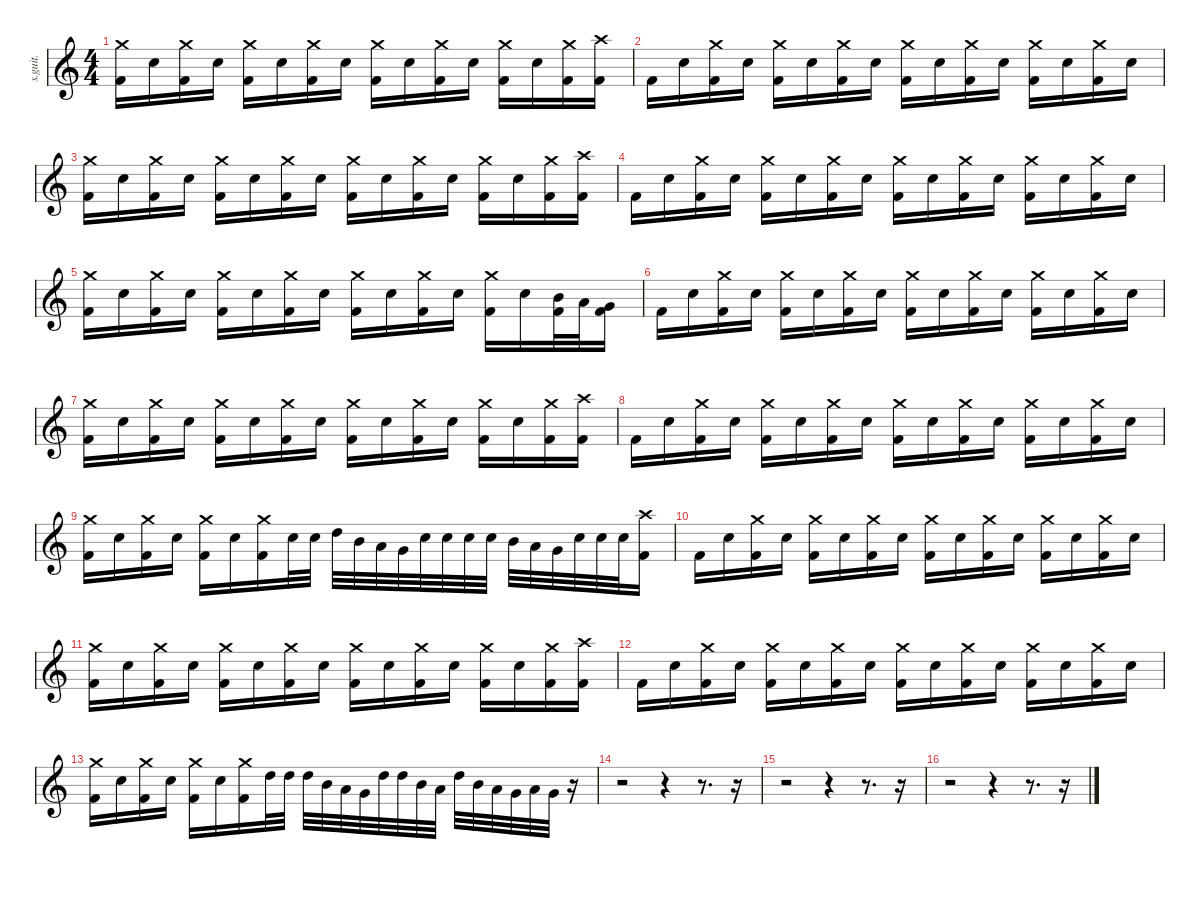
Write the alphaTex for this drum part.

\defaultSystemsLayout 4
\hideDynamics
\bracketExtendMode nobrackets
\track ("Tomas Haake" "s.guit.") {instrument percussion}
\staff {score}
\articulation defaults
\ts (4 4)
\tempo (110 hide)
\clef g2
\ks c
("Crash medium (hit)" "Kick (hit) 2").16{lyrics (0 "") lyrics (1 "") lyrics (2 "") lyrics (3 "") lyrics (4 "") dy f} "Snare (hit) 2".16{lyrics (0 "") lyrics (1 "") lyrics (2 "") lyrics (3 "") lyrics (4 "")} ("Crash medium (hit)" "Kick (hit) 2").16{lyrics (0 "") lyrics (1 "") lyrics (2 "") lyrics (3 "") lyrics (4 "")} "Snare (hit) 2".16{lyrics (0 "") lyrics (1 "") lyrics (2 "") lyrics (3 "") lyrics (4 "")} ("Crash medium (hit)" "Kick (hit) 2").16{lyrics (0 "") lyrics (1 "") lyrics (2 "") lyrics (3 "") lyrics (4 "")} "Snare (hit) 2".16{lyrics (0 "") lyrics (1 "") lyrics (2 "") lyrics (3 "") lyrics (4 "")} ("Crash medium (hit)" "Kick (hit) 2").16{lyrics (0 "") lyrics (1 "") lyrics (2 "") lyrics (3 "") lyrics (4 "")} "Snare (hit) 2".16{lyrics (0 "") lyrics (1 "") lyrics (2 "") lyrics (3 "") lyrics (4 "")} ("Crash medium (hit)" "Kick (hit) 2").16{lyrics (0 "") lyrics (1 "") lyrics (2 "") lyrics (3 "") lyrics (4 "")} "Snare (hit) 2".16{lyrics (0 "") lyrics (1 "") lyrics (2 "") lyrics (3 "") lyrics (4 "")} ("Crash medium (hit)" "Kick (hit) 2").16{lyrics (0 "") lyrics (1 "") lyrics (2 "") lyrics (3 "") lyrics (4 "")} "Snare (hit) 2".16{lyrics (0 "") lyrics (1 "") lyrics (2 "") lyrics (3 "") lyrics (4 "")} ("Crash medium (hit)" "Kick (hit) 2").16{lyrics (0 "") lyrics (1 "") lyrics (2 "") lyrics (3 "") lyrics (4 "")} "Snare (hit) 2".16{lyrics (0 "") lyrics (1 "") lyrics (2 "") lyrics (3 "") lyrics (4 "")} ("Crash medium (hit)" "Kick (hit) 2").16{lyrics (0 "") lyrics (1 "") lyrics (2 "") lyrics (3 "") lyrics (4 "")} ("Crash high (hit)" "Kick (hit) 2").16{lyrics (0 "") lyrics (1 "") lyrics (2 "") lyrics (3 "") lyrics (4 "")} |
"Kick (hit) 2".16{lyrics (0 "") lyrics (1 "") lyrics (2 "") lyrics (3 "") lyrics (4 "")} "Snare (hit) 2".16{lyrics (0 "") lyrics (1 "") lyrics (2 "") lyrics (3 "") lyrics (4 "")} ("Crash medium (hit)" "Kick (hit) 2").16{lyrics (0 "") lyrics (1 "") lyrics (2 "") lyrics (3 "") lyrics (4 "")} "Snare (hit) 2".16{lyrics (0 "") lyrics (1 "") lyrics (2 "") lyrics (3 "") lyrics (4 "")} ("Crash medium (hit)" "Kick (hit) 2").16{lyrics (0 "") lyrics (1 "") lyrics (2 "") lyrics (3 "") lyrics (4 "")} "Snare (hit) 2".16{lyrics (0 "") lyrics (1 "") lyrics (2 "") lyrics (3 "") lyrics (4 "")} ("Crash medium (hit)" "Kick (hit) 2").16{lyrics (0 "") lyrics (1 "") lyrics (2 "") lyrics (3 "") lyrics (4 "")} "Snare (hit) 2".16{lyrics (0 "") lyrics (1 "") lyrics (2 "") lyrics (3 "") lyrics (4 "")} ("Crash medium (hit)" "Kick (hit) 2").16{lyrics (0 "") lyrics (1 "") lyrics (2 "") lyrics (3 "") lyrics (4 "")} "Snare (hit) 2".16{lyrics (0 "") lyrics (1 "") lyrics (2 "") lyrics (3 "") lyrics (4 "")} ("Crash medium (hit)" "Kick (hit) 2").16{lyrics (0 "") lyrics (1 "") lyrics (2 "") lyrics (3 "") lyrics (4 "")} "Snare (hit) 2".16{lyrics (0 "") lyrics (1 "") lyrics (2 "") lyrics (3 "") lyrics (4 "")} ("Crash medium (hit)" "Kick (hit) 2").16{lyrics (0 "") lyrics (1 "") lyrics (2 "") lyrics (3 "") lyrics (4 "")} "Snare (hit) 2".16{lyrics (0 "") lyrics (1 "") lyrics (2 "") lyrics (3 "") lyrics (4 "")} ("Crash medium (hit)" "Kick (hit) 2").16{lyrics (0 "") lyrics (1 "") lyrics (2 "") lyrics (3 "") lyrics (4 "")} "Snare (hit) 2".16{lyrics (0 "") lyrics (1 "") lyrics (2 "") lyrics (3 "") lyrics (4 "")} |
("Crash medium (hit)" "Kick (hit) 2").16{lyrics (0 "") lyrics (1 "") lyrics (2 "") lyrics (3 "") lyrics (4 "")} "Snare (hit) 2".16{lyrics (0 "") lyrics (1 "") lyrics (2 "") lyrics (3 "") lyrics (4 "")} ("Crash medium (hit)" "Kick (hit) 2").16{lyrics (0 "") lyrics (1 "") lyrics (2 "") lyrics (3 "") lyrics (4 "")} "Snare (hit) 2".16{lyrics (0 "") lyrics (1 "") lyrics (2 "") lyrics (3 "") lyrics (4 "")} ("Crash medium (hit)" "Kick (hit) 2").16{lyrics (0 "") lyrics (1 "") lyrics (2 "") lyrics (3 "") lyrics (4 "")} "Snare (hit) 2".16{lyrics (0 "") lyrics (1 "") lyrics (2 "") lyrics (3 "") lyrics (4 "")} ("Crash medium (hit)" "Kick (hit) 2").16{lyrics (0 "") lyrics (1 "") lyrics (2 "") lyrics (3 "") lyrics (4 "")} "Snare (hit) 2".16{lyrics (0 "") lyrics (1 "") lyrics (2 "") lyrics (3 "") lyrics (4 "")} ("Crash medium (hit)" "Kick (hit) 2").16{lyrics (0 "") lyrics (1 "") lyrics (2 "") lyrics (3 "") lyrics (4 "")} "Snare (hit) 2".16{lyrics (0 "") lyrics (1 "") lyrics (2 "") lyrics (3 "") lyrics (4 "")} ("Crash medium (hit)" "Kick (hit) 2").16{lyrics (0 "") lyrics (1 "") lyrics (2 "") lyrics (3 "") lyrics (4 "")} "Snare (hit) 2".16{lyrics (0 "") lyrics (1 "") lyrics (2 "") lyrics (3 "") lyrics (4 "")} ("Crash medium (hit)" "Kick (hit) 2").16{lyrics (0 "") lyrics (1 "") lyrics (2 "") lyrics (3 "") lyrics (4 "")} "Snare (hit) 2".16{lyrics (0 "") lyrics (1 "") lyrics (2 "") lyrics (3 "") lyrics (4 "")} ("Crash medium (hit)" "Kick (hit) 2").16{lyrics (0 "") lyrics (1 "") lyrics (2 "") lyrics (3 "") lyrics (4 "")} ("Crash high (hit)" "Kick (hit) 2").16{lyrics (0 "") lyrics (1 "") lyrics (2 "") lyrics (3 "") lyrics (4 "")} |
"Kick (hit) 2".16{lyrics (0 "") lyrics (1 "") lyrics (2 "") lyrics (3 "") lyrics (4 "")} "Snare (hit) 2".16{lyrics (0 "") lyrics (1 "") lyrics (2 "") lyrics (3 "") lyrics (4 "")} ("Crash medium (hit)" "Kick (hit) 2").16{lyrics (0 "") lyrics (1 "") lyrics (2 "") lyrics (3 "") lyrics (4 "")} "Snare (hit) 2".16{lyrics (0 "") lyrics (1 "") lyrics (2 "") lyrics (3 "") lyrics (4 "")} ("Crash medium (hit)" "Kick (hit) 2").16{lyrics (0 "") lyrics (1 "") lyrics (2 "") lyrics (3 "") lyrics (4 "")} "Snare (hit) 2".16{lyrics (0 "") lyrics (1 "") lyrics (2 "") lyrics (3 "") lyrics (4 "")} ("Crash medium (hit)" "Kick (hit) 2").16{lyrics (0 "") lyrics (1 "") lyrics (2 "") lyrics (3 "") lyrics (4 "")} "Snare (hit) 2".16{lyrics (0 "") lyrics (1 "") lyrics (2 "") lyrics (3 "") lyrics (4 "")} ("Crash medium (hit)" "Kick (hit) 2").16{lyrics (0 "") lyrics (1 "") lyrics (2 "") lyrics (3 "") lyrics (4 "")} "Snare (hit) 2".16{lyrics (0 "") lyrics (1 "") lyrics (2 "") lyrics (3 "") lyrics (4 "")} ("Crash medium (hit)" "Kick (hit) 2").16{lyrics (0 "") lyrics (1 "") lyrics (2 "") lyrics (3 "") lyrics (4 "")} "Snare (hit) 2".16{lyrics (0 "") lyrics (1 "") lyrics (2 "") lyrics (3 "") lyrics (4 "")} ("Crash medium (hit)" "Kick (hit) 2").16{lyrics (0 "") lyrics (1 "") lyrics (2 "") lyrics (3 "") lyrics (4 "")} "Snare (hit) 2".16{lyrics (0 "") lyrics (1 "") lyrics (2 "") lyrics (3 "") lyrics (4 "")} ("Crash medium (hit)" "Kick (hit) 2").16{lyrics (0 "") lyrics (1 "") lyrics (2 "") lyrics (3 "") lyrics (4 "")} "Snare (hit) 2".16{lyrics (0 "") lyrics (1 "") lyrics (2 "") lyrics (3 "") lyrics (4 "")} |
("Crash medium (hit)" "Kick (hit) 2").16{lyrics (0 "") lyrics (1 "") lyrics (2 "") lyrics (3 "") lyrics (4 "")} "Snare (hit) 2".16{lyrics (0 "") lyrics (1 "") lyrics (2 "") lyrics (3 "") lyrics (4 "")} ("Crash medium (hit)" "Kick (hit) 2").16{lyrics (0 "") lyrics (1 "") lyrics (2 "") lyrics (3 "") lyrics (4 "")} "Snare (hit) 2".16{lyrics (0 "") lyrics (1 "") lyrics (2 "") lyrics (3 "") lyrics (4 "")} ("Crash medium (hit)" "Kick (hit) 2").16{lyrics (0 "") lyrics (1 "") lyrics (2 "") lyrics (3 "") lyrics (4 "")} "Snare (hit) 2".16{lyrics (0 "") lyrics (1 "") lyrics (2 "") lyrics (3 "") lyrics (4 "")} ("Crash medium (hit)" "Kick (hit) 2").16{lyrics (0 "") lyrics (1 "") lyrics (2 "") lyrics (3 "") lyrics (4 "")} "Snare (hit) 2".16{lyrics (0 "") lyrics (1 "") lyrics (2 "") lyrics (3 "") lyrics (4 "")} ("Crash medium (hit)" "Kick (hit) 2").16{lyrics (0 "") lyrics (1 "") lyrics (2 "") lyrics (3 "") lyrics (4 "")} "Snare (hit) 2".16{lyrics (0 "") lyrics (1 "") lyrics (2 "") lyrics (3 "") lyrics (4 "")} ("Crash medium (hit)" "Kick (hit) 2").16{lyrics (0 "") lyrics (1 "") lyrics (2 "") lyrics (3 "") lyrics (4 "")} "Snare (hit) 2".16{lyrics (0 "") lyrics (1 "") lyrics (2 "") lyrics (3 "") lyrics (4 "")} ("Crash medium (hit)" "Kick (hit) 2").16{lyrics (0 "") lyrics (1 "") lyrics (2 "") lyrics (3 "") lyrics (4 "")} "Snare (hit) 2".16{lyrics (0 "") lyrics (1 "") lyrics (2 "") lyrics (3 "") lyrics (4 "")} ("Mid Tom (hit)" "Kick (hit) 2").32{lyrics (0 "") lyrics (1 "") lyrics (2 "") lyrics (3 "") lyrics (4 "")} "Low Tom (hit)".32{lyrics (0 "") lyrics (1 "") lyrics (2 "") lyrics (3 "") lyrics (4 "")} ("Very Low Tom (hit)" "Kick (hit) 2").16{lyrics (0 "") lyrics (1 "") lyrics (2 "") lyrics (3 "") lyrics (4 "")} |
"Kick (hit) 2".16{lyrics (0 "") lyrics (1 "") lyrics (2 "") lyrics (3 "") lyrics (4 "")} "Snare (hit) 2".16{lyrics (0 "") lyrics (1 "") lyrics (2 "") lyrics (3 "") lyrics (4 "")} ("Crash medium (hit)" "Kick (hit) 2").16{lyrics (0 "") lyrics (1 "") lyrics (2 "") lyrics (3 "") lyrics (4 "")} "Snare (hit) 2".16{lyrics (0 "") lyrics (1 "") lyrics (2 "") lyrics (3 "") lyrics (4 "")} ("Crash medium (hit)" "Kick (hit) 2").16{lyrics (0 "") lyrics (1 "") lyrics (2 "") lyrics (3 "") lyrics (4 "")} "Snare (hit) 2".16{lyrics (0 "") lyrics (1 "") lyrics (2 "") lyrics (3 "") lyrics (4 "")} ("Crash medium (hit)" "Kick (hit) 2").16{lyrics (0 "") lyrics (1 "") lyrics (2 "") lyrics (3 "") lyrics (4 "")} "Snare (hit) 2".16{lyrics (0 "") lyrics (1 "") lyrics (2 "") lyrics (3 "") lyrics (4 "")} ("Crash medium (hit)" "Kick (hit) 2").16{lyrics (0 "") lyrics (1 "") lyrics (2 "") lyrics (3 "") lyrics (4 "")} "Snare (hit) 2".16{lyrics (0 "") lyrics (1 "") lyrics (2 "") lyrics (3 "") lyrics (4 "")} ("Crash medium (hit)" "Kick (hit) 2").16{lyrics (0 "") lyrics (1 "") lyrics (2 "") lyrics (3 "") lyrics (4 "")} "Snare (hit) 2".16{lyrics (0 "") lyrics (1 "") lyrics (2 "") lyrics (3 "") lyrics (4 "")} ("Crash medium (hit)" "Kick (hit) 2").16{lyrics (0 "") lyrics (1 "") lyrics (2 "") lyrics (3 "") lyrics (4 "")} "Snare (hit) 2".16{lyrics (0 "") lyrics (1 "") lyrics (2 "") lyrics (3 "") lyrics (4 "")} ("Crash medium (hit)" "Kick (hit) 2").16{lyrics (0 "") lyrics (1 "") lyrics (2 "") lyrics (3 "") lyrics (4 "")} "Snare (hit) 2".16{lyrics (0 "") lyrics (1 "") lyrics (2 "") lyrics (3 "") lyrics (4 "")} |
("Crash medium (hit)" "Kick (hit) 2").16{lyrics (0 "") lyrics (1 "") lyrics (2 "") lyrics (3 "") lyrics (4 "")} "Snare (hit) 2".16{lyrics (0 "") lyrics (1 "") lyrics (2 "") lyrics (3 "") lyrics (4 "")} ("Crash medium (hit)" "Kick (hit) 2").16{lyrics (0 "") lyrics (1 "") lyrics (2 "") lyrics (3 "") lyrics (4 "")} "Snare (hit) 2".16{lyrics (0 "") lyrics (1 "") lyrics (2 "") lyrics (3 "") lyrics (4 "")} ("Crash medium (hit)" "Kick (hit) 2").16{lyrics (0 "") lyrics (1 "") lyrics (2 "") lyrics (3 "") lyrics (4 "")} "Snare (hit) 2".16{lyrics (0 "") lyrics (1 "") lyrics (2 "") lyrics (3 "") lyrics (4 "")} ("Crash medium (hit)" "Kick (hit) 2").16{lyrics (0 "") lyrics (1 "") lyrics (2 "") lyrics (3 "") lyrics (4 "")} "Snare (hit) 2".16{lyrics (0 "") lyrics (1 "") lyrics (2 "") lyrics (3 "") lyrics (4 "")} ("Crash medium (hit)" "Kick (hit) 2").16{lyrics (0 "") lyrics (1 "") lyrics (2 "") lyrics (3 "") lyrics (4 "")} "Snare (hit) 2".16{lyrics (0 "") lyrics (1 "") lyrics (2 "") lyrics (3 "") lyrics (4 "")} ("Crash medium (hit)" "Kick (hit) 2").16{lyrics (0 "") lyrics (1 "") lyrics (2 "") lyrics (3 "") lyrics (4 "")} "Snare (hit) 2".16{lyrics (0 "") lyrics (1 "") lyrics (2 "") lyrics (3 "") lyrics (4 "")} ("Crash medium (hit)" "Kick (hit) 2").16{lyrics (0 "") lyrics (1 "") lyrics (2 "") lyrics (3 "") lyrics (4 "")} "Snare (hit) 2".16{lyrics (0 "") lyrics (1 "") lyrics (2 "") lyrics (3 "") lyrics (4 "")} ("Crash medium (hit)" "Kick (hit) 2").16{lyrics (0 "") lyrics (1 "") lyrics (2 "") lyrics (3 "") lyrics (4 "")} ("Crash high (hit)" "Kick (hit) 2").16{lyrics (0 "") lyrics (1 "") lyrics (2 "") lyrics (3 "") lyrics (4 "")} |
"Kick (hit) 2".16{lyrics (0 "") lyrics (1 "") lyrics (2 "") lyrics (3 "") lyrics (4 "")} "Snare (hit) 2".16{lyrics (0 "") lyrics (1 "") lyrics (2 "") lyrics (3 "") lyrics (4 "")} ("Crash medium (hit)" "Kick (hit) 2").16{lyrics (0 "") lyrics (1 "") lyrics (2 "") lyrics (3 "") lyrics (4 "")} "Snare (hit) 2".16{lyrics (0 "") lyrics (1 "") lyrics (2 "") lyrics (3 "") lyrics (4 "")} ("Crash medium (hit)" "Kick (hit) 2").16{lyrics (0 "") lyrics (1 "") lyrics (2 "") lyrics (3 "") lyrics (4 "")} "Snare (hit) 2".16{lyrics (0 "") lyrics (1 "") lyrics (2 "") lyrics (3 "") lyrics (4 "")} ("Crash medium (hit)" "Kick (hit) 2").16{lyrics (0 "") lyrics (1 "") lyrics (2 "") lyrics (3 "") lyrics (4 "")} "Snare (hit) 2".16{lyrics (0 "") lyrics (1 "") lyrics (2 "") lyrics (3 "") lyrics (4 "")} ("Crash medium (hit)" "Kick (hit) 2").16{lyrics (0 "") lyrics (1 "") lyrics (2 "") lyrics (3 "") lyrics (4 "")} "Snare (hit) 2".16{lyrics (0 "") lyrics (1 "") lyrics (2 "") lyrics (3 "") lyrics (4 "")} ("Crash medium (hit)" "Kick (hit) 2").16{lyrics (0 "") lyrics (1 "") lyrics (2 "") lyrics (3 "") lyrics (4 "")} "Snare (hit) 2".16{lyrics (0 "") lyrics (1 "") lyrics (2 "") lyrics (3 "") lyrics (4 "")} ("Crash medium (hit)" "Kick (hit) 2").16{lyrics (0 "") lyrics (1 "") lyrics (2 "") lyrics (3 "") lyrics (4 "")} "Snare (hit) 2".16{lyrics (0 "") lyrics (1 "") lyrics (2 "") lyrics (3 "") lyrics (4 "")} ("Crash medium (hit)" "Kick (hit) 2").16{lyrics (0 "") lyrics (1 "") lyrics (2 "") lyrics (3 "") lyrics (4 "")} "Snare (hit) 2".16{lyrics (0 "") lyrics (1 "") lyrics (2 "") lyrics (3 "") lyrics (4 "")} |
("Crash medium (hit)" "Kick (hit) 2").16{lyrics (0 "") lyrics (1 "") lyrics (2 "") lyrics (3 "") lyrics (4 "")} "Snare (hit) 2".16{lyrics (0 "") lyrics (1 "") lyrics (2 "") lyrics (3 "") lyrics (4 "")} ("Crash medium (hit)" "Kick (hit) 2").16{lyrics (0 "") lyrics (1 "") lyrics (2 "") lyrics (3 "") lyrics (4 "")} "Snare (hit) 2".16{lyrics (0 "") lyrics (1 "") lyrics (2 "") lyrics (3 "") lyrics (4 "")} ("Crash medium (hit)" "Kick (hit) 2").16{lyrics (0 "") lyrics (1 "") lyrics (2 "") lyrics (3 "") lyrics (4 "")} "Snare (hit) 2".16{lyrics (0 "") lyrics (1 "") lyrics (2 "") lyrics (3 "") lyrics (4 "")} ("Crash medium (hit)" "Kick (hit) 2").16{lyrics (0 "") lyrics (1 "") lyrics (2 "") lyrics (3 "") lyrics (4 "")} "Snare (hit) 2".32{lyrics (0 "") lyrics (1 "") lyrics (2 "") lyrics (3 "") lyrics (4 "")} "Snare (hit) 2".32{lyrics (0 "") lyrics (1 "") lyrics (2 "") lyrics (3 "") lyrics (4 "")} "High Tom (hit)".32{lyrics (0 "") lyrics (1 "") lyrics (2 "") lyrics (3 "") lyrics (4 "")} "Mid Tom (hit)".32{lyrics (0 "") lyrics (1 "") lyrics (2 "") lyrics (3 "") lyrics (4 "")} "Low Tom (hit)".32{lyrics (0 "") lyrics (1 "") lyrics (2 "") lyrics (3 "") lyrics (4 "")} "Very Low Tom (hit)".32{lyrics (0 "") lyrics (1 "") lyrics (2 "") lyrics (3 "") lyrics (4 "")} "Snare (hit) 2".32{lyrics (0 "") lyrics (1 "") lyrics (2 "") lyrics (3 "") lyrics (4 "")} "Snare (hit) 2".32{lyrics (0 "") lyrics (1 "") lyrics (2 "") lyrics (3 "") lyrics (4 "")} "Snare (hit) 2".32{lyrics (0 "") lyrics (1 "") lyrics (2 "") lyrics (3 "") lyrics (4 "")} "Snare (hit) 2".32{lyrics (0 "") lyrics (1 "") lyrics (2 "") lyrics (3 "") lyrics (4 "")} "Mid Tom (hit)".32{lyrics (0 "") lyrics (1 "") lyrics (2 "") lyrics (3 "") lyrics (4 "")} "Low Tom (hit)".32{lyrics (0 "") lyrics (1 "") lyrics (2 "") lyrics (3 "") lyrics (4 "")} "Very Low Tom (hit)".32{lyrics (0 "") lyrics (1 "") lyrics (2 "") lyrics (3 "") lyrics (4 "")} "Snare (hit) 2".32{lyrics (0 "") lyrics (1 "") lyrics (2 "") lyrics (3 "") lyrics (4 "")} "Snare (hit) 2".32{lyrics (0 "") lyrics (1 "") lyrics (2 "") lyrics (3 "") lyrics (4 "")} "Snare (hit) 2".32{lyrics (0 "") lyrics (1 "") lyrics (2 "") lyrics (3 "") lyrics (4 "")} ("Crash high (hit)" "Kick (hit) 2").16{lyrics (0 "") lyrics (1 "") lyrics (2 "") lyrics (3 "") lyrics (4 "")} |
"Kick (hit) 2".16{lyrics (0 "") lyrics (1 "") lyrics (2 "") lyrics (3 "") lyrics (4 "")} "Snare (hit) 2".16{lyrics (0 "") lyrics (1 "") lyrics (2 "") lyrics (3 "") lyrics (4 "")} ("Crash medium (hit)" "Kick (hit) 2").16{lyrics (0 "") lyrics (1 "") lyrics (2 "") lyrics (3 "") lyrics (4 "")} "Snare (hit) 2".16{lyrics (0 "") lyrics (1 "") lyrics (2 "") lyrics (3 "") lyrics (4 "")} ("Crash medium (hit)" "Kick (hit) 2").16{lyrics (0 "") lyrics (1 "") lyrics (2 "") lyrics (3 "") lyrics (4 "")} "Snare (hit) 2".16{lyrics (0 "") lyrics (1 "") lyrics (2 "") lyrics (3 "") lyrics (4 "")} ("Crash medium (hit)" "Kick (hit) 2").16{lyrics (0 "") lyrics (1 "") lyrics (2 "") lyrics (3 "") lyrics (4 "")} "Snare (hit) 2".16{lyrics (0 "") lyrics (1 "") lyrics (2 "") lyrics (3 "") lyrics (4 "")} ("Crash medium (hit)" "Kick (hit) 2").16{lyrics (0 "") lyrics (1 "") lyrics (2 "") lyrics (3 "") lyrics (4 "")} "Snare (hit) 2".16{lyrics (0 "") lyrics (1 "") lyrics (2 "") lyrics (3 "") lyrics (4 "")} ("Crash medium (hit)" "Kick (hit) 2").16{lyrics (0 "") lyrics (1 "") lyrics (2 "") lyrics (3 "") lyrics (4 "")} "Snare (hit) 2".16{lyrics (0 "") lyrics (1 "") lyrics (2 "") lyrics (3 "") lyrics (4 "")} ("Crash medium (hit)" "Kick (hit) 2").16{lyrics (0 "") lyrics (1 "") lyrics (2 "") lyrics (3 "") lyrics (4 "")} "Snare (hit) 2".16{lyrics (0 "") lyrics (1 "") lyrics (2 "") lyrics (3 "") lyrics (4 "")} ("Crash medium (hit)" "Kick (hit) 2").16{lyrics (0 "") lyrics (1 "") lyrics (2 "") lyrics (3 "") lyrics (4 "")} "Snare (hit) 2".16{lyrics (0 "") lyrics (1 "") lyrics (2 "") lyrics (3 "") lyrics (4 "")} |
("Crash medium (hit)" "Kick (hit) 2").16{lyrics (0 "") lyrics (1 "") lyrics (2 "") lyrics (3 "") lyrics (4 "")} "Snare (hit) 2".16{lyrics (0 "") lyrics (1 "") lyrics (2 "") lyrics (3 "") lyrics (4 "")} ("Crash medium (hit)" "Kick (hit) 2").16{lyrics (0 "") lyrics (1 "") lyrics (2 "") lyrics (3 "") lyrics (4 "")} "Snare (hit) 2".16{lyrics (0 "") lyrics (1 "") lyrics (2 "") lyrics (3 "") lyrics (4 "")} ("Crash medium (hit)" "Kick (hit) 2").16{lyrics (0 "") lyrics (1 "") lyrics (2 "") lyrics (3 "") lyrics (4 "")} "Snare (hit) 2".16{lyrics (0 "") lyrics (1 "") lyrics (2 "") lyrics (3 "") lyrics (4 "")} ("Crash medium (hit)" "Kick (hit) 2").16{lyrics (0 "") lyrics (1 "") lyrics (2 "") lyrics (3 "") lyrics (4 "")} "Snare (hit) 2".16{lyrics (0 "") lyrics (1 "") lyrics (2 "") lyrics (3 "") lyrics (4 "")} ("Crash medium (hit)" "Kick (hit) 2").16{lyrics (0 "") lyrics (1 "") lyrics (2 "") lyrics (3 "") lyrics (4 "")} "Snare (hit) 2".16{lyrics (0 "") lyrics (1 "") lyrics (2 "") lyrics (3 "") lyrics (4 "")} ("Crash medium (hit)" "Kick (hit) 2").16{lyrics (0 "") lyrics (1 "") lyrics (2 "") lyrics (3 "") lyrics (4 "")} "Snare (hit) 2".16{lyrics (0 "") lyrics (1 "") lyrics (2 "") lyrics (3 "") lyrics (4 "")} ("Crash medium (hit)" "Kick (hit) 2").16{lyrics (0 "") lyrics (1 "") lyrics (2 "") lyrics (3 "") lyrics (4 "")} "Snare (hit) 2".16{lyrics (0 "") lyrics (1 "") lyrics (2 "") lyrics (3 "") lyrics (4 "")} ("Crash medium (hit)" "Kick (hit) 2").16{lyrics (0 "") lyrics (1 "") lyrics (2 "") lyrics (3 "") lyrics (4 "")} ("Crash high (hit)" "Kick (hit) 2").16{lyrics (0 "") lyrics (1 "") lyrics (2 "") lyrics (3 "") lyrics (4 "")} |
"Kick (hit) 2".16{lyrics (0 "") lyrics (1 "") lyrics (2 "") lyrics (3 "") lyrics (4 "")} "Snare (hit) 2".16{lyrics (0 "") lyrics (1 "") lyrics (2 "") lyrics (3 "") lyrics (4 "")} ("Crash medium (hit)" "Kick (hit) 2").16{lyrics (0 "") lyrics (1 "") lyrics (2 "") lyrics (3 "") lyrics (4 "")} "Snare (hit) 2".16{lyrics (0 "") lyrics (1 "") lyrics (2 "") lyrics (3 "") lyrics (4 "")} ("Crash medium (hit)" "Kick (hit) 2").16{lyrics (0 "") lyrics (1 "") lyrics (2 "") lyrics (3 "") lyrics (4 "")} "Snare (hit) 2".16{lyrics (0 "") lyrics (1 "") lyrics (2 "") lyrics (3 "") lyrics (4 "")} ("Crash medium (hit)" "Kick (hit) 2").16{lyrics (0 "") lyrics (1 "") lyrics (2 "") lyrics (3 "") lyrics (4 "")} "Snare (hit) 2".16{lyrics (0 "") lyrics (1 "") lyrics (2 "") lyrics (3 "") lyrics (4 "")} ("Crash medium (hit)" "Kick (hit) 2").16{lyrics (0 "") lyrics (1 "") lyrics (2 "") lyrics (3 "") lyrics (4 "")} "Snare (hit) 2".16{lyrics (0 "") lyrics (1 "") lyrics (2 "") lyrics (3 "") lyrics (4 "")} ("Crash medium (hit)" "Kick (hit) 2").16{lyrics (0 "") lyrics (1 "") lyrics (2 "") lyrics (3 "") lyrics (4 "")} "Snare (hit) 2".16{lyrics (0 "") lyrics (1 "") lyrics (2 "") lyrics (3 "") lyrics (4 "")} ("Crash medium (hit)" "Kick (hit) 2").16{lyrics (0 "") lyrics (1 "") lyrics (2 "") lyrics (3 "") lyrics (4 "")} "Snare (hit) 2".16{lyrics (0 "") lyrics (1 "") lyrics (2 "") lyrics (3 "") lyrics (4 "")} ("Crash medium (hit)" "Kick (hit) 2").16{lyrics (0 "") lyrics (1 "") lyrics (2 "") lyrics (3 "") lyrics (4 "")} "Snare (hit) 2".16{lyrics (0 "") lyrics (1 "") lyrics (2 "") lyrics (3 "") lyrics (4 "")} |
("Crash medium (hit)" "Kick (hit) 2").16{lyrics (0 "") lyrics (1 "") lyrics (2 "") lyrics (3 "") lyrics (4 "")} "Snare (hit) 2".16{lyrics (0 "") lyrics (1 "") lyrics (2 "") lyrics (3 "") lyrics (4 "")} ("Crash medium (hit)" "Kick (hit) 2").16{lyrics (0 "") lyrics (1 "") lyrics (2 "") lyrics (3 "") lyrics (4 "")} "Snare (hit) 2".16{lyrics (0 "") lyrics (1 "") lyrics (2 "") lyrics (3 "") lyrics (4 "")} ("Crash medium (hit)" "Kick (hit) 2").16{lyrics (0 "") lyrics (1 "") lyrics (2 "") lyrics (3 "") lyrics (4 "")} "Snare (hit) 2".16{lyrics (0 "") lyrics (1 "") lyrics (2 "") lyrics (3 "") lyrics (4 "")} ("Crash medium (hit)" "Kick (hit) 2").16{lyrics (0 "") lyrics (1 "") lyrics (2 "") lyrics (3 "") lyrics (4 "")} "High Tom (hit)".32{lyrics (0 "") lyrics (1 "") lyrics (2 "") lyrics (3 "") lyrics (4 "")} "High Tom (hit)".32{lyrics (0 "") lyrics (1 "") lyrics (2 "") lyrics (3 "") lyrics (4 "")} "High Tom (hit)".32{lyrics (0 "") lyrics (1 "") lyrics (2 "") lyrics (3 "") lyrics (4 "")} "Mid Tom (hit)".32{lyrics (0 "") lyrics (1 "") lyrics (2 "") lyrics (3 "") lyrics (4 "")} "Low Tom (hit)".32{lyrics (0 "") lyrics (1 "") lyrics (2 "") lyrics (3 "") lyrics (4 "")} "Very Low Tom (hit)".32{lyrics (0 "") lyrics (1 "") lyrics (2 "") lyrics (3 "") lyrics (4 "")} "High Tom (hit)".32{lyrics (0 "") lyrics (1 "") lyrics (2 "") lyrics (3 "") lyrics (4 "")} "High Tom (hit)".32{lyrics (0 "") lyrics (1 "") lyrics (2 "") lyrics (3 "") lyrics (4 "")} "Mid Tom (hit)".32{lyrics (0 "") lyrics (1 "") lyrics (2 "") lyrics (3 "") lyrics (4 "")} "Low Tom (hit)".32{lyrics (0 "") lyrics (1 "") lyrics (2 "") lyrics (3 "") lyrics (4 "")} "High Tom (hit)".32{lyrics (0 "") lyrics (1 "") lyrics (2 "") lyrics (3 "") lyrics (4 "")} "Mid Tom (hit)".32{lyrics (0 "") lyrics (1 "") lyrics (2 "") lyrics (3 "") lyrics (4 "")} "Low Tom (hit)".32{lyrics (0 "") lyrics (1 "") lyrics (2 "") lyrics (3 "") lyrics (4 "")} "Very Low Tom (hit)".32{lyrics (0 "") lyrics (1 "") lyrics (2 "") lyrics (3 "") lyrics (4 "")} "Low Tom (hit)".32{lyrics (0 "") lyrics (1 "") lyrics (2 "") lyrics (3 "") lyrics (4 "")} "Very Low Tom (hit)".32{lyrics (0 "") lyrics (1 "") lyrics (2 "") lyrics (3 "") lyrics (4 "")} r.16 |
r.2 r.4 r.8{d} r.16 |
r.2 r.4 r.8{d} r.16 |
r.2 r.4 r.8{d} r.16
